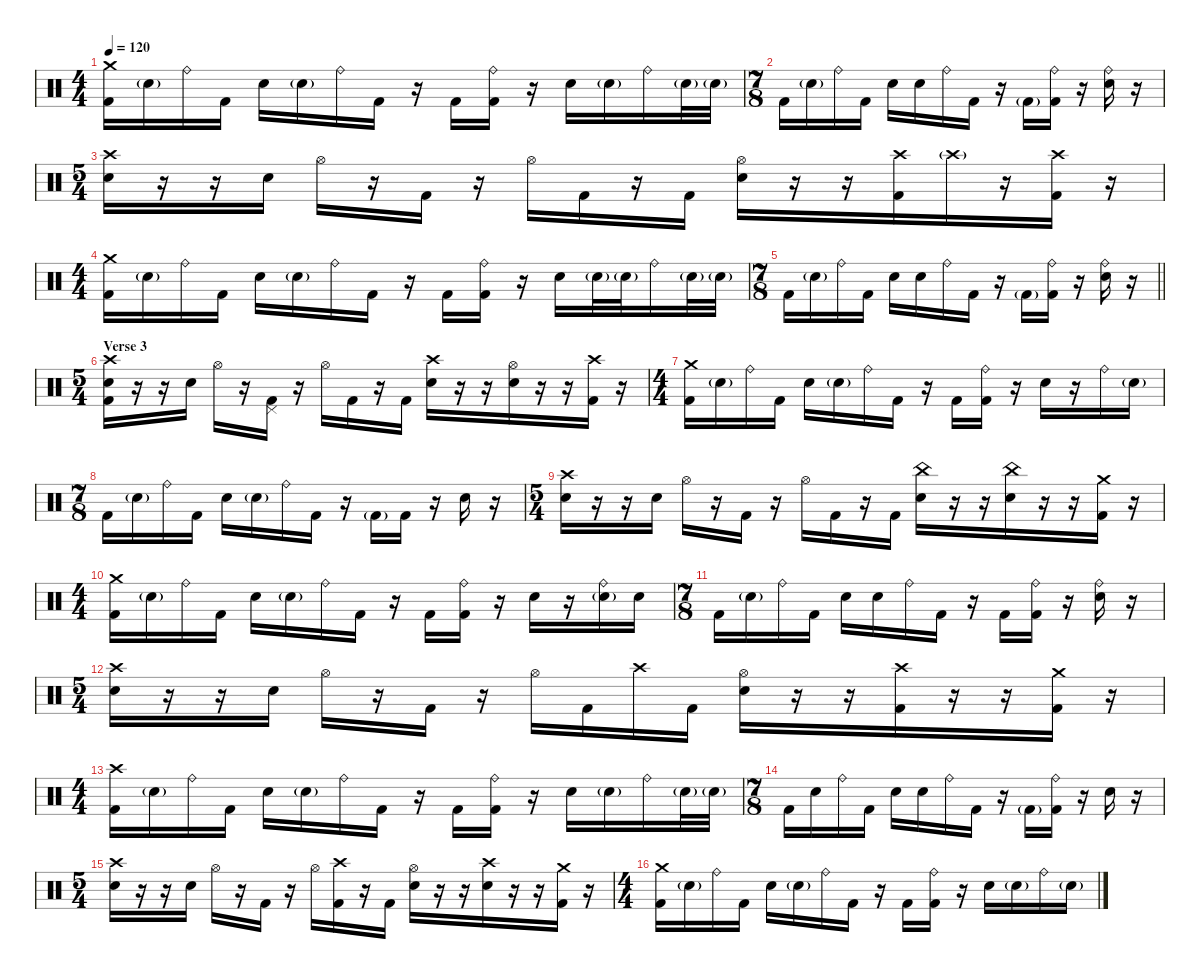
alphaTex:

\defaultSystemsLayout 4
\hideDynamics
\bracketExtendMode nobrackets
\singleTrackTrackNamePolicy hidden
\multiTrackTrackNamePolicy hidden
\firstSystemTrackNameMode fullname
\firstSystemTrackNameOrientation horizontal
\otherSystemsTrackNameOrientation horizontal
\track ("Martin Axenrot - Drums" "drm.") {instrument percussion}
\staff {score}
\articulation defaults
\ts (4 4)
\beaming (8 2 2 2 2)
\tempo 120
\clef neutral
\ks c
("Crash medium (hit)" "Kick (hit) 2").16{dy f beam Down} "Snare (hit) 2"{g}.16{dy mf beam Down} "Ride (bell)".16{dy f beam Down} "Kick (hit) 2".16{beam Down} "Snare (hit) 2".16{beam Down} "Snare (hit) 2"{g}.16{dy mf beam Down} "Ride (bell)".16{dy f beam Down} "Kick (hit) 2".16{beam Down} r.16{beam Down} "Kick (hit) 2".16{dy mf beam Down} ("Ride (bell)" "Kick (hit) 2").16{dy f beam Down} r.16{beam Down} "Snare (hit) 2".16{beam Down} "Snare (hit) 2"{g}.16{dy mf beam Down} "Ride (bell)".16{dy f beam Down} "Snare (hit) 2"{g}.32{dy mf beam Down} "Snare (hit) 2"{g}.32{beam Down} |
\ts (7 8)
\beaming (8 2 2 2 2)
"Kick (hit) 2".16{dy f beam Down} "Snare (hit) 2"{g}.16{dy mf beam Down} "Ride (bell)".16{dy f beam Down} "Kick (hit) 2".16{beam Down} "Snare (hit) 2".16{beam Down} "Snare (hit) 2".16{beam Down} "Ride (bell)".16{beam Down} "Kick (hit) 2".16{beam Down} r.16{beam Down} "Kick (hit) 2"{g}.16{dy mf beam Down} ("Ride (bell)" "Kick (hit) 2").16{dy f beam Down} r.16{beam Down} ("Ride (bell)" "Snare (hit) 2").16{beam Down} r.16{beam Down} |
\ts (5 4)
\beaming (8 2 2 2 4)
("Crash high (hit)" "Snare (hit) 2").16{beam Down} r.16{beam Down} r.16{beam Down} "Snare (hit) 2".16{beam Down} "Hi-Hat (open)".16{beam Down} r.16{beam Down} "Kick (hit) 2".16{beam Down} r.16{beam Down} "Hi-Hat (open)".16{beam Down} "Kick (hit) 2".16{beam Down} r.16{beam Down} "Kick (hit) 2".16{beam Down} ("Hi-Hat (open)" "Snare (hit) 2").16{beam Down} r.16{beam Down} r.16{beam Down} ("Crash high (hit)" "Kick (hit) 2").16{beam Down} "Crash high (hit)"{g}.16{dy pp beam Down} r.16{beam Down} ("Crash high (hit)" "Kick (hit) 2").16{dy f beam Down} r.16{beam Down} |
\ts (4 4)
\beaming (8 2 2 2 2)
("Crash medium (hit)" "Kick (hit) 2").16{beam Down} "Snare (hit) 2"{g}.16{dy mf beam Down} "Ride (bell)".16{dy f beam Down} "Kick (hit) 2".16{beam Down} "Snare (hit) 2".16{beam Down} "Snare (hit) 2"{g}.16{dy mf beam Down} "Ride (bell)".16{dy f beam Down} "Kick (hit) 2".16{beam Down} r.16{beam Down} "Kick (hit) 2".16{dy mf beam Down} ("Ride (bell)" "Kick (hit) 2").16{dy f beam Down} r.16{beam Down} "Snare (hit) 2".16{beam Down} "Snare (hit) 2"{g}.32{dy mf beam Down} "Snare (hit) 2"{g}.32{beam Down} "Ride (bell)".16{dy f beam Down} "Snare (hit) 2"{g}.32{dy mf beam Down} "Snare (hit) 2"{g}.32{beam Down} |
\ts (7 8)
\beaming (8 2 2 2 2)
\barLineRight lightlight "Kick (hit) 2".16{dy f beam Down} "Snare (hit) 2"{g}.16{dy mf beam Down} "Ride (bell)".16{dy f beam Down} "Kick (hit) 2".16{beam Down} "Snare (hit) 2".16{beam Down} "Snare (hit) 2".16{beam Down} "Ride (bell)".16{beam Down} "Kick (hit) 2".16{beam Down}
r.16{beam Down} "Kick (hit) 2"{g}.16{dy mf beam Down} ("Ride (bell)" "Kick (hit) 2").16{dy f beam Down} r.16{beam Down} ("Ride (bell)" "Snare (hit) 2").16{beam Down} r.16{beam Down} |
\ts (5 4)
\beaming (8 2 2 2 4)
\section ("" "Verse 3")
("Crash high (hit)" "Snare (hit) 2" "Kick (hit) 2").16{beam Down} r.16{beam Down} r.16{beam Down} "Snare (hit) 2".16{beam Down} "Hi-Hat (open)".16{beam Down} r.16{beam Down} ("Pedal Hi-Hat (hit)" "Kick (hit) 2").16{beam Down} r.16{beam Down} "Hi-Hat (open)".16{beam Down} "Kick (hit) 2".16{beam Down} r.16{beam Down} "Kick (hit) 2".16{beam Down} ("Crash high (hit)" "Snare (hit) 2").16{beam Down} r.16{beam Down} r.16{beam Down} ("Hi-Hat (open)" "Snare (hit) 2").16{beam Down} r.16{beam Down} r.16{beam Down} ("Crash high (hit)" "Kick (hit) 2").16{beam Down} r.16{beam Down} |
\ts (4 4)
\beaming (8 2 2 2 2)
("Crash medium (hit)" "Kick (hit) 2").16{beam Down} "Snare (hit) 2"{g}.16{dy mf beam Down} "Ride (bell)".16{dy f beam Down} "Kick (hit) 2".16{beam Down} "Snare (hit) 2".16{beam Down} "Snare (hit) 2"{g}.16{dy mf beam Down} "Ride (bell)".16{dy f beam Down} "Kick (hit) 2".16{beam Down} r.16{beam Down} "Kick (hit) 2".16{dy mf beam Down} ("Ride (bell)" "Kick (hit) 2").16{dy f beam Down} r.16{beam Down} "Snare (hit) 2".16{beam Down} r.16{beam Down} "Ride (bell)".16{beam Down} "Snare (hit) 2"{g}.16{dy mf beam Down} |
\ts (7 8)
\beaming (8 2 2 2 2)
"Kick (hit) 2".16{dy f beam Down} "Snare (hit) 2"{g}.16{dy mf beam Down} "Ride (bell)".16{dy f beam Down} "Kick (hit) 2".16{beam Down} "Snare (hit) 2".16{beam Down} "Snare (hit) 2"{g}.16{dy mf beam Down} "Ride (bell)".16{dy f beam Down} "Kick (hit) 2".16{beam Down} r.16{beam Down} "Kick (hit) 2"{g}.16{dy mf beam Up} "Kick (hit) 2".16{dy f beam Up} r.16{beam Up} "Snare (hit) 2".16{beam Down} r.16{beam Down} |
\ts (5 4)
\beaming (8 2 2 2 4)
("Crash high (hit)" "Snare (hit) 2").16{beam Down} r.16{beam Down} r.16{beam Down} "Snare (hit) 2".16{beam Down} "Hi-Hat (open)".16{beam Down} r.16{beam Down} "Kick (hit) 2".16{beam Down} r.16{beam Down} "Hi-Hat (open)".16{beam Down} "Kick (hit) 2".16{beam Down} r.16{beam Down} "Kick (hit) 2".16{beam Down} ("China (hit)" "Snare (hit) 2").16{beam Down} r.16{beam Down} r.16{beam Down} ("China (hit)" "Snare (hit) 2").16{beam Down} r.16{beam Down} r.16{beam Down} ("Crash medium (hit)" "Kick (hit) 2").16{beam Down} r.16{beam Down} |
\ts (4 4)
\beaming (8 2 2 2 2)
("Crash medium (hit)" "Kick (hit) 2").16{beam Down} "Snare (hit) 2"{g}.16{dy mf beam Down} "Ride (bell)".16{dy f beam Down} "Kick (hit) 2".16{beam Down} "Snare (hit) 2".16{beam Down} "Snare (hit) 2"{g}.16{dy mf beam Down} "Ride (bell)".16{dy f beam Down} "Kick (hit) 2".16{beam Down} r.16{beam Down} "Kick (hit) 2".16{dy mf beam Down} ("Ride (bell)" "Kick (hit) 2").16{dy f beam Down} r.16{beam Down} "Snare (hit) 2".16{beam Down} r.16{beam Down} ("Ride (bell)" "Snare (hit) 2"{g}).16{beam Down} "Snare (hit) 2".16{beam Down} |
\ts (7 8)
\beaming (8 2 2 2 2)
"Kick (hit) 2".16{beam Down} "Snare (hit) 2"{g}.16{dy mf beam Down} "Ride (bell)".16{dy f beam Down} "Kick (hit) 2".16{beam Down} "Snare (hit) 2".16{beam Down} "Snare (hit) 2".16{beam Down} "Ride (bell)".16{beam Down} "Kick (hit) 2".16{beam Down} r.16{beam Down} "Kick (hit) 2".16{beam Down} ("Ride (bell)" "Kick (hit) 2").16{beam Down} r.16{beam Down} ("Ride (bell)" "Snare (hit) 2").16{beam Down} r.16{beam Down} |
\ts (5 4)
\beaming (8 2 2 2 4)
("Crash high (hit)" "Snare (hit) 2").16{beam Down} r.16{beam Down} r.16{beam Down} "Snare (hit) 2".16{beam Down} "Hi-Hat (open)".16{beam Down} r.16{beam Down} "Kick (hit) 2".16{beam Down} r.16{beam Down} "Hi-Hat (open)".16{beam Down} "Kick (hit) 2".16{beam Down} "Crash high (hit)".16{beam Down} "Kick (hit) 2".16{beam Down} ("Hi-Hat (open)" "Snare (hit) 2").16{beam Down} r.16{beam Down} r.16{beam Down} ("Crash high (hit)" "Kick (hit) 2").16{beam Down} r.16{beam Down} r.16{beam Down} ("Crash medium (hit)" "Kick (hit) 2").16{beam Down} r.16{beam Down} |
\ts (4 4)
\beaming (8 2 2 2 2)
("Crash high (hit)" "Kick (hit) 2").16{beam Down} "Snare (hit) 2"{g}.16{dy mf beam Down} "Ride (bell)".16{dy f beam Down} "Kick (hit) 2".16{beam Down} "Snare (hit) 2".16{beam Down} "Snare (hit) 2"{g}.16{dy mf beam Down} "Ride (bell)".16{dy f beam Down} "Kick (hit) 2".16{beam Down} r.16{beam Down} "Kick (hit) 2".16{dy mf beam Down} ("Ride (bell)" "Kick (hit) 2").16{dy f beam Down} r.16{beam Down} "Snare (hit) 2".16{beam Down} "Snare (hit) 2"{g}.16{dy mf beam Down} "Ride (bell)".16{dy f beam Down} "Snare (hit) 2"{g}.32{dy mf beam Down} "Snare (hit) 2"{g}.32{beam Down} |
\ts (7 8)
\beaming (8 2 2 2 2)
"Kick (hit) 2".16{dy f beam Down} "Snare (hit) 2".16{beam Down} "Ride (bell)".16{beam Down} "Kick (hit) 2".16{beam Down} "Snare (hit) 2".16{beam Down} "Snare (hit) 2".16{beam Down} "Ride (bell)".16{beam Down} "Kick (hit) 2".16{beam Down} r.16{beam Down} "Kick (hit) 2"{g}.16{dy mf beam Down} ("Ride (bell)" "Kick (hit) 2").16{dy f beam Down} r.16{beam Down} "Snare (hit) 2".16{beam Down} r.16{beam Down} |
\ts (5 4)
\beaming (8 2 2 2 4)
("Crash high (hit)" "Snare (hit) 2").16{beam Down} r.16{beam Down} r.16{beam Down} "Snare (hit) 2".16{beam Down} "Hi-Hat (open)".16{beam Down} r.16{beam Down} "Kick (hit) 2".16{beam Down} r.16{beam Down} "Hi-Hat (open)".16{beam Down} ("Crash high (hit)" "Kick (hit) 2").16{dy mf beam Down} r.16{beam Down} "Kick (hit) 2".16{dy f beam Down} ("Hi-Hat (open)" "Snare (hit) 2").16{beam Down} r.16{beam Down} r.16{beam Down} ("Crash high (hit)" "Snare (hit) 2").16{beam Down} r.16{beam Down} r.16{beam Down} ("Crash medium (hit)" "Kick (hit) 2").16{beam Down} r.16{beam Down} |
\ts (4 4)
\beaming (8 2 2 2 2)
("Crash medium (hit)" "Kick (hit) 2").16{beam Down} "Snare (hit) 2"{g}.16{dy mf beam Down} "Ride (bell)".16{dy f beam Down} "Kick (hit) 2".16{beam Down} "Snare (hit) 2".16{beam Down} "Snare (hit) 2"{g}.16{dy mf beam Down} "Ride (bell)".16{dy f beam Down} "Kick (hit) 2".16{beam Down} r.16{beam Down} "Kick (hit) 2".16{dy mf beam Down} ("Ride (bell)" "Kick (hit) 2").16{dy f beam Down} r.16{beam Down} "Snare (hit) 2".16{beam Down} "Snare (hit) 2"{g}.16{dy mf beam Down} "Ride (bell)".16{dy f beam Down} "Snare (hit) 2"{g}.16{dy mf beam Down}
